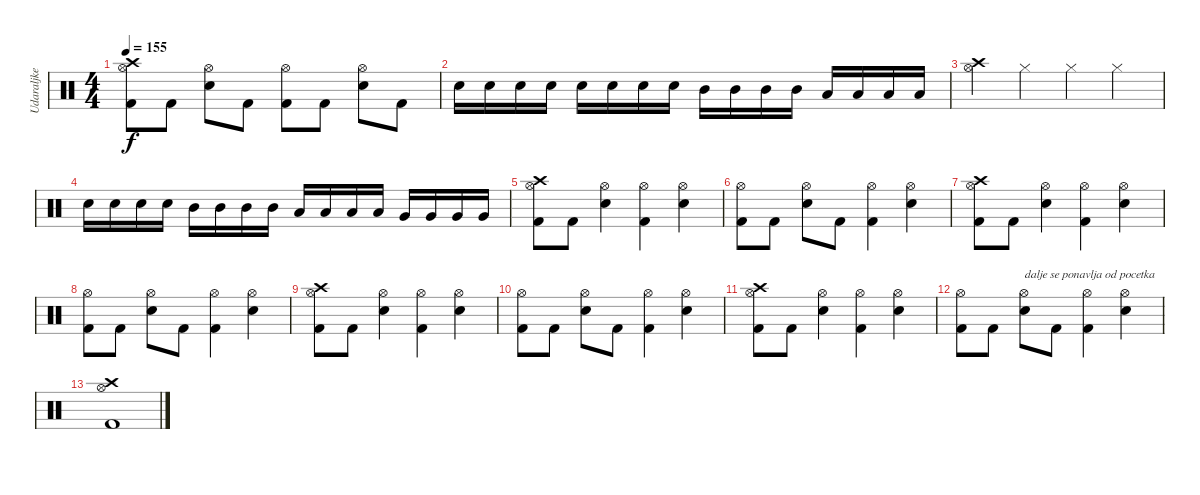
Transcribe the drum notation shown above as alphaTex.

\track ("Udaraljke" "Udaraljke") {instrument percussion}
\staff {score}
\articulation defaults
\ts (4 4)
\tempo 155
\clef neutral
\ks c
("Hi-Hat (open)" "Kick (hit) 2" "Crash high (hit)").8{dy f} "Kick (hit) 2".8 ("Hi-Hat (open)" "Electric Snare (hit)").8 "Kick (hit) 2".8 ("Hi-Hat (open)" "Kick (hit) 2").8 "Kick (hit) 2".8 ("Hi-Hat (open)" "Electric Snare (hit)").8 "Kick (hit) 2".8 |
"Snare (hit) 2".16 "Snare (hit) 2".16 "Snare (hit) 2".16 "Snare (hit) 2".16 "Snare (hit) 2".16 "Snare (hit) 2".16 "Snare (hit) 2".16 "Snare (hit) 2".16 "Mid Tom (hit)".16 "Mid Tom (hit)".16 "Mid Tom (hit)".16 "Mid Tom (hit)".16 "Low Tom (hit)".16 "Low Tom (hit)".16 "Low Tom (hit)".16 "Low Tom (hit)".16 |
("Crash high (hit)" "Hi-Hat (open)").4 "Hi-Hat (closed)".4 "Hi-Hat (closed)".4 "Hi-Hat (closed)".4 |
"Snare (hit) 2".16 "Snare (hit) 2".16 "Snare (hit) 2".16 "Snare (hit) 2".16 "Mid Tom (hit)".16 "Mid Tom (hit)".16 "Mid Tom (hit)".16 "Mid Tom (hit)".16 "Low Tom (hit)".16 "Low Tom (hit)".16 "Low Tom (hit)".16 "Low Tom (hit)".16 "Very Low Tom (hit)".16 "Very Low Tom (hit)".16 "Very Low Tom (hit)".16 "Very Low Tom (hit)".16 |
("Crash high (hit)" "Hi-Hat (open)" "Kick (hit) 2").8 "Kick (hit) 2".8 ("Hi-Hat (open)" "Electric Snare (hit)").4 ("Hi-Hat (open)" "Kick (hit) 2").4 ("Hi-Hat (open)" "Electric Snare (hit)").4 |
("Hi-Hat (open)" "Kick (hit) 2").8 "Kick (hit) 2".8 ("Hi-Hat (open)" "Electric Snare (hit)").8 "Kick (hit) 2".8 ("Hi-Hat (open)" "Kick (hit) 2").4 ("Hi-Hat (open)" "Electric Snare (hit)").4 |
("Crash high (hit)" "Hi-Hat (open)" "Kick (hit) 2").8 "Kick (hit) 2".8 ("Hi-Hat (open)" "Electric Snare (hit)").4 ("Hi-Hat (open)" "Kick (hit) 2").4 ("Hi-Hat (open)" "Electric Snare (hit)").4 |
("Hi-Hat (open)" "Kick (hit) 2").8 "Kick (hit) 2".8 ("Hi-Hat (open)" "Electric Snare (hit)").8 "Kick (hit) 2".8 ("Hi-Hat (open)" "Kick (hit) 2").4 ("Hi-Hat (open)" "Electric Snare (hit)").4 |
("Crash high (hit)" "Hi-Hat (open)" "Kick (hit) 2").8 "Kick (hit) 2".8 ("Hi-Hat (open)" "Electric Snare (hit)").4 ("Hi-Hat (open)" "Kick (hit) 2").4 ("Hi-Hat (open)" "Electric Snare (hit)").4 |
("Hi-Hat (open)" "Kick (hit) 2").8 "Kick (hit) 2".8 ("Hi-Hat (open)" "Electric Snare (hit)").8 "Kick (hit) 2".8 ("Hi-Hat (open)" "Kick (hit) 2").4 ("Hi-Hat (open)" "Electric Snare (hit)").4 |
("Crash high (hit)" "Hi-Hat (open)" "Kick (hit) 2").8 "Kick (hit) 2".8 ("Hi-Hat (open)" "Electric Snare (hit)").4 ("Hi-Hat (open)" "Kick (hit) 2").4 ("Hi-Hat (open)" "Electric Snare (hit)").4 |
("Hi-Hat (open)" "Kick (hit) 2").8 "Kick (hit) 2".8 ("Hi-Hat (open)" "Electric Snare (hit)").8{txt "dalje se ponavlja od pocetka"} "Kick (hit) 2".8 ("Hi-Hat (open)" "Kick (hit) 2").4 ("Hi-Hat (open)" "Electric Snare (hit)").4 |
("Crash high (hit)" "Hi-Hat (open)" "Kick (hit) 2").1
